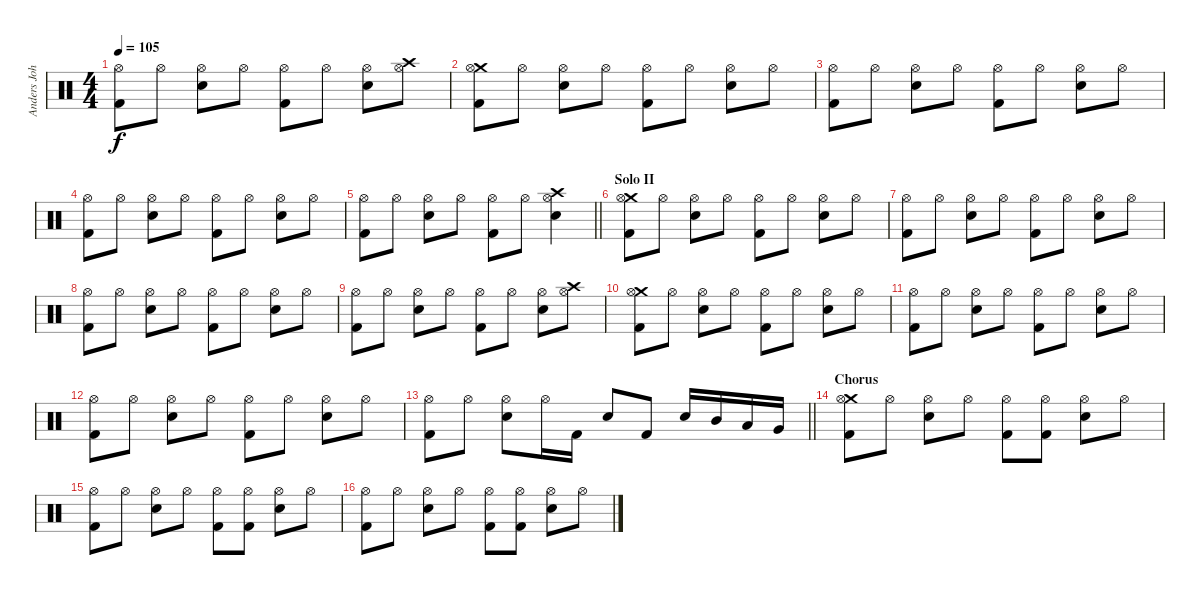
\track ("Anders Johansson" "Anders Joh") {instrument percussion}
\staff {score}
\articulation defaults
\ts (4 4)
\tempo 105
\clef neutral
\ks c
("Hi-Hat (open)" "Kick (hit) 2").8{dy f} "Hi-Hat (open)".8 ("Hi-Hat (open)" "Snare (hit) 2").8 "Hi-Hat (open)".8 ("Hi-Hat (open)" "Kick (hit) 2").8 "Hi-Hat (open)".8 ("Hi-Hat (open)" "Snare (hit) 2").8 ("Crash high (hit)" "Hi-Hat (open)").8 |
("Crash medium (hit)" "Hi-Hat (open)" "Kick (hit) 2").8 "Hi-Hat (open)".8 ("Hi-Hat (open)" "Snare (hit) 2").8 "Hi-Hat (open)".8 ("Hi-Hat (open)" "Kick (hit) 2").8 "Hi-Hat (open)".8 ("Hi-Hat (open)" "Snare (hit) 2").8 "Hi-Hat (open)".8 |
("Hi-Hat (open)" "Kick (hit) 2").8 "Hi-Hat (open)".8 ("Hi-Hat (open)" "Snare (hit) 2").8 "Hi-Hat (open)".8 ("Hi-Hat (open)" "Kick (hit) 2").8 "Hi-Hat (open)".8 ("Hi-Hat (open)" "Snare (hit) 2").8 "Hi-Hat (open)".8 |
("Hi-Hat (open)" "Kick (hit) 2").8 "Hi-Hat (open)".8 ("Hi-Hat (open)" "Snare (hit) 2").8 "Hi-Hat (open)".8 ("Hi-Hat (open)" "Kick (hit) 2").8 "Hi-Hat (open)".8 ("Hi-Hat (open)" "Snare (hit) 2").8 "Hi-Hat (open)".8 |
\barLineRight lightlight
("Hi-Hat (open)" "Kick (hit) 2").8 "Hi-Hat (open)".8 ("Hi-Hat (open)" "Snare (hit) 2").8 "Hi-Hat (open)".8 ("Hi-Hat (open)" "Kick (hit) 2").8 "Hi-Hat (open)".8 ("Crash high (hit)" "Hi-Hat (open)" "Snare (hit) 2").4 |
\section ("" "Solo II")
("Crash medium (hit)" "Hi-Hat (open)" "Kick (hit) 2").8 "Hi-Hat (open)".8 ("Hi-Hat (open)" "Snare (hit) 2").8 "Hi-Hat (open)".8 ("Hi-Hat (open)" "Kick (hit) 2").8 "Hi-Hat (open)".8 ("Hi-Hat (open)" "Snare (hit) 2").8 "Hi-Hat (open)".8 |
("Hi-Hat (open)" "Kick (hit) 2").8 "Hi-Hat (open)".8 ("Hi-Hat (open)" "Snare (hit) 2").8 "Hi-Hat (open)".8 ("Hi-Hat (open)" "Kick (hit) 2").8 "Hi-Hat (open)".8 ("Hi-Hat (open)" "Snare (hit) 2").8 "Hi-Hat (open)".8 |
("Hi-Hat (open)" "Kick (hit) 2").8 "Hi-Hat (open)".8 ("Hi-Hat (open)" "Snare (hit) 2").8 "Hi-Hat (open)".8 ("Hi-Hat (open)" "Kick (hit) 2").8 "Hi-Hat (open)".8 ("Hi-Hat (open)" "Snare (hit) 2").8 "Hi-Hat (open)".8 |
("Hi-Hat (open)" "Kick (hit) 2").8 "Hi-Hat (open)".8 ("Hi-Hat (open)" "Snare (hit) 2").8 "Hi-Hat (open)".8 ("Hi-Hat (open)" "Kick (hit) 2").8 "Hi-Hat (open)".8 ("Hi-Hat (open)" "Snare (hit) 2").8 ("Crash high (hit)" "Hi-Hat (open)").8 |
("Crash medium (hit)" "Hi-Hat (open)" "Kick (hit) 2").8 "Hi-Hat (open)".8 ("Hi-Hat (open)" "Snare (hit) 2").8 "Hi-Hat (open)".8 ("Hi-Hat (open)" "Kick (hit) 2").8 "Hi-Hat (open)".8 ("Hi-Hat (open)" "Snare (hit) 2").8 "Hi-Hat (open)".8 |
("Hi-Hat (open)" "Kick (hit) 2").8 "Hi-Hat (open)".8 ("Hi-Hat (open)" "Snare (hit) 2").8 "Hi-Hat (open)".8 ("Hi-Hat (open)" "Kick (hit) 2").8 "Hi-Hat (open)".8 ("Hi-Hat (open)" "Snare (hit) 2").8 "Hi-Hat (open)".8 |
("Hi-Hat (open)" "Kick (hit) 2").8 "Hi-Hat (open)".8 ("Hi-Hat (open)" "Snare (hit) 2").8 "Hi-Hat (open)".8 ("Hi-Hat (open)" "Kick (hit) 2").8 "Hi-Hat (open)".8 ("Hi-Hat (open)" "Snare (hit) 2").8 "Hi-Hat (open)".8 |
\barLineRight lightlight
("Hi-Hat (open)" "Kick (hit) 2").8 "Hi-Hat (open)".8 ("Hi-Hat (open)" "Snare (hit) 2").8 "Hi-Hat (open)".16 "Kick (hit) 2".16 "Snare (hit) 2".8 "Kick (hit) 2".8 "Snare (hit) 2".16 "Mid Tom (hit)".16 "Low Tom (hit)".16 "Very Low Tom (hit)".16 |
\section ("" "Chorus")
("Crash medium (hit)" "Hi-Hat (open)" "Kick (hit) 2").8 "Hi-Hat (open)".8 ("Hi-Hat (open)" "Snare (hit) 2").8 "Hi-Hat (open)".8 ("Hi-Hat (open)" "Kick (hit) 2").8 ("Hi-Hat (open)" "Kick (hit) 2").8 ("Hi-Hat (open)" "Snare (hit) 2").8 "Hi-Hat (open)".8 |
("Hi-Hat (open)" "Kick (hit) 2").8 "Hi-Hat (open)".8 ("Hi-Hat (open)" "Snare (hit) 2").8 "Hi-Hat (open)".8 ("Hi-Hat (open)" "Kick (hit) 2").8 ("Hi-Hat (open)" "Kick (hit) 2").8 ("Hi-Hat (open)" "Snare (hit) 2").8 "Hi-Hat (open)".8 |
("Hi-Hat (open)" "Kick (hit) 2").8 "Hi-Hat (open)".8 ("Hi-Hat (open)" "Snare (hit) 2").8 "Hi-Hat (open)".8 ("Hi-Hat (open)" "Kick (hit) 2").8 ("Hi-Hat (open)" "Kick (hit) 2").8 ("Hi-Hat (open)" "Snare (hit) 2").8 "Hi-Hat (open)".8
